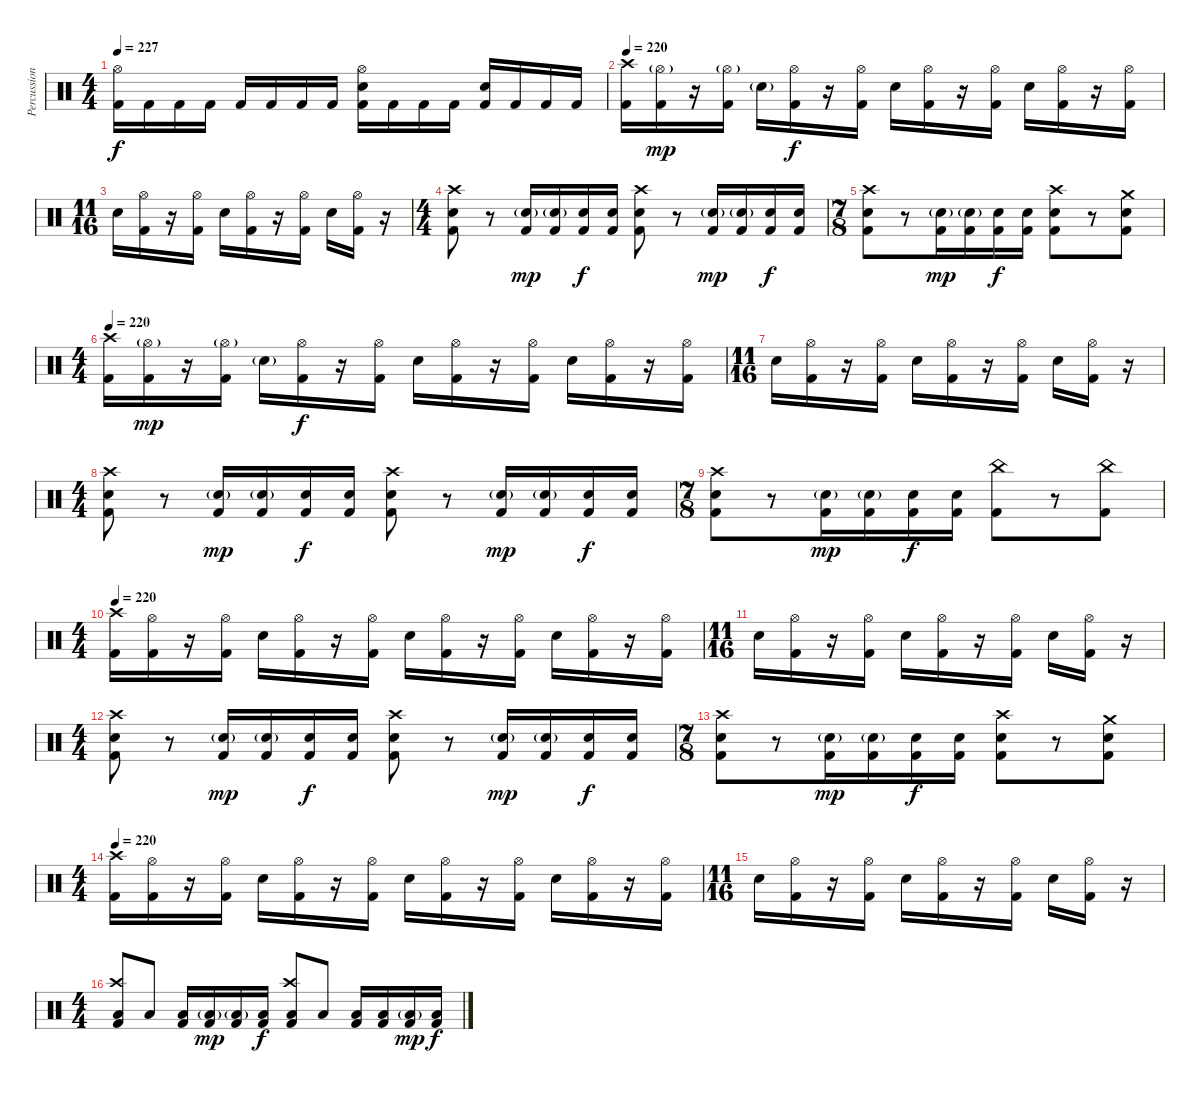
\track ("Percussioni" "Percussion") {instrument percussion}
\staff {score}
\articulation defaults
\ts (4 4)
\tempo 227
\clef neutral
\ks c
("Hi-Hat (open)" "Kick (hit) 2").16{dy f} "Kick (hit) 2".16 "Kick (hit) 2".16 "Kick (hit) 2".16 "Kick (hit) 2".16 "Kick (hit) 2".16 "Kick (hit) 2".16 "Kick (hit) 2".16 ("Snare (hit) 2" "Hi-Hat (open)" "Kick (hit) 2").16 "Kick (hit) 2".16 "Kick (hit) 2".16 "Kick (hit) 2".16 ("Snare (hit) 2" "Kick (hit) 2").16 "Kick (hit) 2".16 "Kick (hit) 2".16 "Kick (hit) 2".16 |
\tempo 220
("Crash high (hit)" "Kick (hit) 2").16 ("Hi-Hat (open)"{g} "Kick (hit) 2").16{dy mp} r.16 ("Hi-Hat (open)"{g} "Kick (hit) 2").16 "Snare (hit) 2"{g}.16 ("Hi-Hat (open)" "Kick (hit) 2").16{dy f} r.16 ("Hi-Hat (open)" "Kick (hit) 2").16 "Snare (hit) 2".16 ("Hi-Hat (open)" "Kick (hit) 2").16 r.16 ("Hi-Hat (open)" "Kick (hit) 2").16 "Snare (hit) 2".16 ("Hi-Hat (open)" "Kick (hit) 2").16 r.16 ("Hi-Hat (open)" "Kick (hit) 2").16 |
\ts (11 16)
"Snare (hit) 2".16 ("Hi-Hat (open)" "Kick (hit) 2").16 r.16 ("Hi-Hat (open)" "Kick (hit) 2").16 "Snare (hit) 2".16 ("Hi-Hat (open)" "Kick (hit) 2").16 r.16 ("Hi-Hat (open)" "Kick (hit) 2").16 "Snare (hit) 2".16 ("Hi-Hat (open)" "Kick (hit) 2").16 r.16 |
\ts (4 4)
("Crash high (hit)" "Snare (hit) 2" "Kick (hit) 2").8 r.8 ("Snare (hit) 2"{g} "Kick (hit) 2").16{dy mp} ("Snare (hit) 2"{g} "Kick (hit) 2").16 ("Snare (hit) 2" "Kick (hit) 2").16{dy f} ("Snare (hit) 2" "Kick (hit) 2").16 ("Crash high (hit)" "Snare (hit) 2" "Kick (hit) 2").8 r.8 ("Snare (hit) 2"{g} "Kick (hit) 2").16{dy mp} ("Snare (hit) 2"{g} "Kick (hit) 2").16 ("Snare (hit) 2" "Kick (hit) 2").16{dy f} ("Snare (hit) 2" "Kick (hit) 2").16 |
\ts (7 8)
("Crash high (hit)" "Snare (hit) 2" "Kick (hit) 2").8 r.8 ("Snare (hit) 2"{g} "Kick (hit) 2").16{dy mp} ("Snare (hit) 2"{g} "Kick (hit) 2").16 ("Snare (hit) 2" "Kick (hit) 2").16{dy f} ("Snare (hit) 2" "Kick (hit) 2").16 ("Crash high (hit)" "Snare (hit) 2" "Kick (hit) 2").8 r.8 ("Crash medium (hit)" "Snare (hit) 2" "Kick (hit) 2").8 |
\ts (4 4)
\tempo 220
("Crash high (hit)" "Kick (hit) 2").16 ("Hi-Hat (open)"{g} "Kick (hit) 2").16{dy mp} r.16 ("Hi-Hat (open)"{g} "Kick (hit) 2").16 "Snare (hit) 2"{g}.16 ("Hi-Hat (open)" "Kick (hit) 2").16{dy f} r.16 ("Hi-Hat (open)" "Kick (hit) 2").16 "Snare (hit) 2".16 ("Hi-Hat (open)" "Kick (hit) 2").16 r.16 ("Hi-Hat (open)" "Kick (hit) 2").16 "Snare (hit) 2".16 ("Hi-Hat (open)" "Kick (hit) 2").16 r.16 ("Hi-Hat (open)" "Kick (hit) 2").16 |
\ts (11 16)
"Snare (hit) 2".16 ("Hi-Hat (open)" "Kick (hit) 2").16 r.16 ("Hi-Hat (open)" "Kick (hit) 2").16 "Snare (hit) 2".16 ("Hi-Hat (open)" "Kick (hit) 2").16 r.16 ("Hi-Hat (open)" "Kick (hit) 2").16 "Snare (hit) 2".16 ("Hi-Hat (open)" "Kick (hit) 2").16 r.16 |
\ts (4 4)
("Crash high (hit)" "Snare (hit) 2" "Kick (hit) 2").8 r.8 ("Snare (hit) 2"{g} "Kick (hit) 2").16{dy mp} ("Snare (hit) 2"{g} "Kick (hit) 2").16 ("Snare (hit) 2" "Kick (hit) 2").16{dy f} ("Snare (hit) 2" "Kick (hit) 2").16 ("Crash high (hit)" "Snare (hit) 2" "Kick (hit) 2").8 r.8 ("Snare (hit) 2"{g} "Kick (hit) 2").16{dy mp} ("Snare (hit) 2"{g} "Kick (hit) 2").16 ("Snare (hit) 2" "Kick (hit) 2").16{dy f} ("Snare (hit) 2" "Kick (hit) 2").16 |
\ts (7 8)
("Crash high (hit)" "Snare (hit) 2" "Kick (hit) 2").8 r.8 ("Snare (hit) 2"{g} "Kick (hit) 2").16{dy mp} ("Snare (hit) 2"{g} "Kick (hit) 2").16 ("Snare (hit) 2" "Kick (hit) 2").16{dy f} ("Snare (hit) 2" "Kick (hit) 2").16 ("China (hit)" "Kick (hit) 2").8 r.8 ("China (hit)" "Kick (hit) 2").8 |
\ts (4 4)
\tempo 220
("Crash high (hit)" "Kick (hit) 2").16 ("Hi-Hat (open)" "Kick (hit) 2").16 r.16 ("Hi-Hat (open)" "Kick (hit) 2").16 "Snare (hit) 2".16 ("Hi-Hat (open)" "Kick (hit) 2").16 r.16 ("Hi-Hat (open)" "Kick (hit) 2").16 "Snare (hit) 2".16 ("Hi-Hat (open)" "Kick (hit) 2").16 r.16 ("Hi-Hat (open)" "Kick (hit) 2").16 "Snare (hit) 2".16 ("Hi-Hat (open)" "Kick (hit) 2").16 r.16 ("Hi-Hat (open)" "Kick (hit) 2").16 |
\ts (11 16)
"Snare (hit) 2".16 ("Hi-Hat (open)" "Kick (hit) 2").16 r.16 ("Hi-Hat (open)" "Kick (hit) 2").16 "Snare (hit) 2".16 ("Hi-Hat (open)" "Kick (hit) 2").16 r.16 ("Hi-Hat (open)" "Kick (hit) 2").16 "Snare (hit) 2".16 ("Hi-Hat (open)" "Kick (hit) 2").16 r.16 |
\ts (4 4)
("Crash high (hit)" "Snare (hit) 2" "Kick (hit) 2").8 r.8 ("Snare (hit) 2"{g} "Kick (hit) 2").16{dy mp} ("Snare (hit) 2"{g} "Kick (hit) 2").16 ("Snare (hit) 2" "Kick (hit) 2").16{dy f} ("Snare (hit) 2" "Kick (hit) 2").16 ("Crash high (hit)" "Snare (hit) 2" "Kick (hit) 2").8 r.8 ("Snare (hit) 2"{g} "Kick (hit) 2").16{dy mp} ("Snare (hit) 2"{g} "Kick (hit) 2").16 ("Snare (hit) 2" "Kick (hit) 2").16{dy f} ("Snare (hit) 2" "Kick (hit) 2").16 |
\ts (7 8)
("Crash high (hit)" "Snare (hit) 2" "Kick (hit) 2").8 r.8 ("Snare (hit) 2"{g} "Kick (hit) 2").16{dy mp} ("Snare (hit) 2"{g} "Kick (hit) 2").16 ("Snare (hit) 2" "Kick (hit) 2").16{dy f} ("Snare (hit) 2" "Kick (hit) 2").16 ("Crash high (hit)" "Snare (hit) 2" "Kick (hit) 2").8 r.8 ("Crash medium (hit)" "Snare (hit) 2" "Kick (hit) 2").8 |
\ts (4 4)
\tempo 220
("Crash high (hit)" "Kick (hit) 2").16 ("Hi-Hat (open)" "Kick (hit) 2").16 r.16 ("Hi-Hat (open)" "Kick (hit) 2").16 "Snare (hit) 2".16 ("Hi-Hat (open)" "Kick (hit) 2").16 r.16 ("Hi-Hat (open)" "Kick (hit) 2").16 "Snare (hit) 2".16 ("Hi-Hat (open)" "Kick (hit) 2").16 r.16 ("Hi-Hat (open)" "Kick (hit) 2").16 "Snare (hit) 2".16 ("Hi-Hat (open)" "Kick (hit) 2").16 r.16 ("Hi-Hat (open)" "Kick (hit) 2").16 |
\ts (11 16)
"Snare (hit) 2".16 ("Hi-Hat (open)" "Kick (hit) 2").16 r.16 ("Hi-Hat (open)" "Kick (hit) 2").16 "Snare (hit) 2".16 ("Hi-Hat (open)" "Kick (hit) 2").16 r.16 ("Hi-Hat (open)" "Kick (hit) 2").16 "Snare (hit) 2".16 ("Hi-Hat (open)" "Kick (hit) 2").16 r.16 |
\ts (4 4)
("Crash high (hit)" "Low Tom (hit)" "Kick (hit) 2").8 "Low Tom (hit)".8 ("Low Tom (hit)" "Kick (hit) 2").16 ("Low Tom (hit)"{g} "Kick (hit) 2").16{dy mp} ("Low Tom (hit)"{g} "Kick (hit) 2").16 ("Low Tom (hit)" "Kick (hit) 2").16{dy f} ("Crash high (hit)" "Low Tom (hit)" "Kick (hit) 2").8 "Low Tom (hit)".8 ("Low Tom (hit)" "Kick (hit) 2").16 ("Low Tom (hit)" "Kick (hit) 2").16 ("Low Tom (hit)"{g} "Kick (hit) 2").16{dy mp} ("Low Tom (hit)" "Kick (hit) 2").16{dy f}
